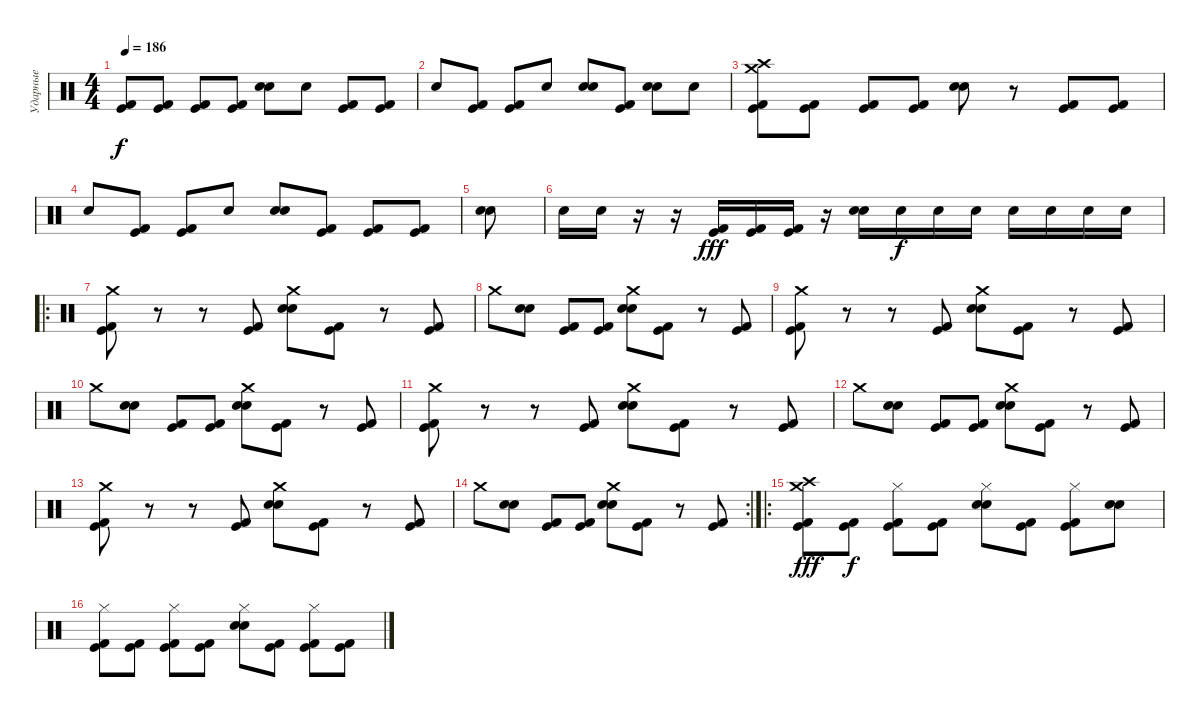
\track ("Ударные" "Ударные") {instrument percussion}
\staff {score}
\articulation defaults
\ts (4 4)
\tempo 186
\clef neutral
\ks c
("Kick (hit) 2" "Kick (hit)").8{dy f} ("Kick (hit) 2" "Kick (hit)").8 ("Kick (hit) 2" "Kick (hit)").8 ("Kick (hit) 2" "Kick (hit)").8 ("Electric Snare (hit)" "Snare (hit) 2").8 "Snare (hit)".8 ("Kick (hit) 2" "Kick (hit)").8 ("Kick (hit) 2" "Kick (hit)").8 |
"Snare (hit)".8 ("Kick (hit) 2" "Kick (hit)").8 ("Kick (hit) 2" "Kick (hit)").8 "Snare (hit)".8 ("Electric Snare (hit)" "Snare (hit) 2").8 ("Kick (hit) 2" "Kick (hit)").8 ("Electric Snare (hit)" "Snare (hit) 2").8 "Snare (hit)".8 |
("Kick (hit) 2" "Kick (hit)" "Crash medium (hit)" "Crash high (hit)").8 ("Kick (hit) 2" "Kick (hit)").8 ("Kick (hit) 2" "Kick (hit)").8 ("Kick (hit) 2" "Kick (hit)").8 ("Electric Snare (hit)" "Snare (hit) 2").8 r.8 ("Kick (hit) 2" "Kick (hit)").8 ("Kick (hit) 2" "Kick (hit)").8 |
"Snare (hit)".8 ("Kick (hit) 2" "Kick (hit)").8 ("Kick (hit) 2" "Kick (hit)").8 "Snare (hit)".8 ("Electric Snare (hit)" "Snare (hit) 2").8 ("Kick (hit) 2" "Kick (hit)").8 ("Kick (hit) 2" "Kick (hit)").8 ("Kick (hit) 2" "Kick (hit)").8 |
("Electric Snare (hit)" "Snare (hit) 2").8 |
"Snare (hit)".16 "Snare (hit)".16 r.16 r.16 ("Kick (hit) 2" "Kick (hit)").16{dy fff} ("Kick (hit) 2" "Kick (hit)").16 ("Kick (hit) 2" "Kick (hit)").16 r.16 ("Electric Snare (hit)" "Snare (hit) 2").16 "Snare (hit)".16{dy f} "Snare (hit)".16 "Snare (hit)".16 "Snare (hit)".16 "Snare (hit)".16 "Snare (hit)".16 "Snare (hit)".16 |
\ro
("Kick (hit) 2" "Kick (hit)" "Crash medium (hit)").8 r.8 r.8 ("Kick (hit) 2" "Kick (hit)").8 ("Electric Snare (hit)" "Snare (hit) 2" "Crash medium (hit)").8 ("Kick (hit) 2" "Kick (hit)").8 r.8 ("Kick (hit) 2" "Kick (hit)").8 |
"Crash medium (hit)".8 ("Electric Snare (hit)" "Snare (hit) 2").8 ("Kick (hit) 2" "Kick (hit)").8 ("Kick (hit) 2" "Kick (hit)").8 ("Electric Snare (hit)" "Snare (hit) 2" "Crash medium (hit)").8 ("Kick (hit) 2" "Kick (hit)").8 r.8 ("Kick (hit) 2" "Kick (hit)").8 |
("Kick (hit) 2" "Kick (hit)" "Crash medium (hit)").8 r.8 r.8 ("Kick (hit) 2" "Kick (hit)").8 ("Electric Snare (hit)" "Snare (hit) 2" "Crash medium (hit)").8 ("Kick (hit) 2" "Kick (hit)").8 r.8 ("Kick (hit) 2" "Kick (hit)").8 |
"Crash medium (hit)".8 ("Electric Snare (hit)" "Snare (hit) 2").8 ("Kick (hit) 2" "Kick (hit)").8 ("Kick (hit) 2" "Kick (hit)").8 ("Electric Snare (hit)" "Snare (hit) 2" "Crash medium (hit)").8 ("Kick (hit) 2" "Kick (hit)").8 r.8 ("Kick (hit) 2" "Kick (hit)").8 |
("Kick (hit) 2" "Kick (hit)" "Crash medium (hit)").8 r.8 r.8 ("Kick (hit) 2" "Kick (hit)").8 ("Electric Snare (hit)" "Snare (hit) 2" "Crash medium (hit)").8 ("Kick (hit) 2" "Kick (hit)").8 r.8 ("Kick (hit) 2" "Kick (hit)").8 |
"Crash medium (hit)".8 ("Electric Snare (hit)" "Snare (hit) 2").8 ("Kick (hit) 2" "Kick (hit)").8 ("Kick (hit) 2" "Kick (hit)").8 ("Electric Snare (hit)" "Snare (hit) 2" "Crash medium (hit)").8 ("Kick (hit) 2" "Kick (hit)").8 r.8 ("Kick (hit) 2" "Kick (hit)").8 |
("Kick (hit) 2" "Kick (hit)" "Crash medium (hit)").8 r.8 r.8 ("Kick (hit) 2" "Kick (hit)").8 ("Electric Snare (hit)" "Snare (hit) 2" "Crash medium (hit)").8 ("Kick (hit) 2" "Kick (hit)").8 r.8 ("Kick (hit) 2" "Kick (hit)").8 |
\rc 2 "Crash medium (hit)".8
("Electric Snare (hit)" "Snare (hit) 2").8 ("Kick (hit) 2" "Kick (hit)").8 ("Kick (hit) 2" "Kick (hit)").8 ("Electric Snare (hit)" "Snare (hit) 2" "Crash medium (hit)").8 ("Kick (hit) 2" "Kick (hit)").8 r.8 ("Kick (hit) 2" "Kick (hit)").8 |
\ro
("Kick (hit) 2" "Kick (hit)" "Crash high (hit)" "Crash medium (hit)").8{dy fff} ("Kick (hit) 2" "Kick (hit)").8{dy f} ("Kick (hit) 2" "Kick (hit)" "Hi-Hat (closed)").8 ("Kick (hit) 2" "Kick (hit)").8 ("Electric Snare (hit)" "Snare (hit) 2" "Hi-Hat (closed)").8 ("Kick (hit) 2" "Kick (hit)").8 ("Kick (hit) 2" "Kick (hit)" "Hi-Hat (closed)").8 ("Electric Snare (hit)" "Snare (hit) 2").8 |
("Kick (hit) 2" "Kick (hit)" "Hi-Hat (closed)").8 ("Kick (hit) 2" "Kick (hit)").8 ("Kick (hit) 2" "Kick (hit)" "Hi-Hat (closed)").8 ("Kick (hit) 2" "Kick (hit)").8 ("Electric Snare (hit)" "Snare (hit) 2" "Hi-Hat (closed)").8 ("Kick (hit) 2" "Kick (hit)").8 ("Kick (hit) 2" "Kick (hit)" "Hi-Hat (closed)").8 ("Kick (hit) 2" "Kick (hit)").8
